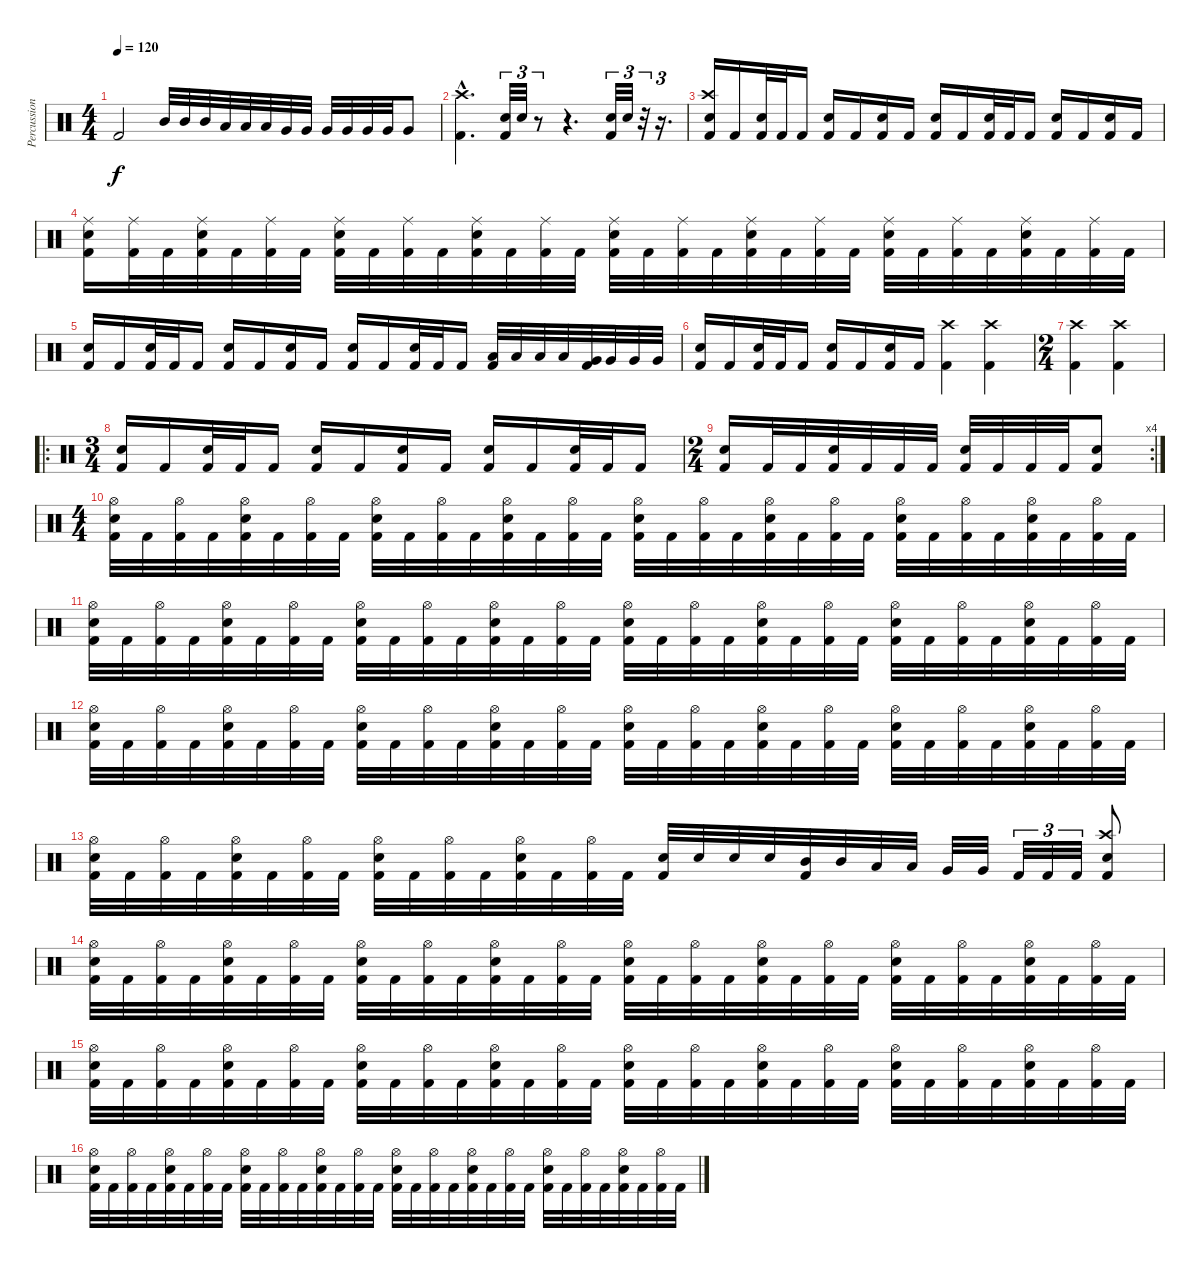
\track ("Percussion" "Percussion") {instrument percussion}
\staff {score}
\articulation defaults
\ts (4 4)
\tempo 120
\clef neutral
\ks c "Kick (hit) 2".2{dy f} "Mid Tom (hit)".32 "Mid Tom (hit)".32 "Mid Tom (hit)".32 "Low Tom (hit)".32 "Low Tom (hit)".32 "Low Tom (hit)".32 "Very Low Tom (hit)".32 "Very Low Tom (hit)".32 "Very Low Tom (hit)".32 "Very Low Tom (hit)".32 "Very Low Tom (hit)".32 "Very Low Tom (hit)".32 "Very Low Tom (hit)".8
|
("Crash high (hit)"{hac} "Kick (hit) 2"{hac}).4{d} ("Snare (hit) 2" "Kick (hit) 2").32{tu (3 2)} "Snare (hit) 2".32{tu (3 2)} r.8{tu (3 2)} r.4{d} ("Snare (hit) 2" "Kick (hit) 2").32{tu (3 2)} "Snare (hit) 2".32{tu (3 2)} r.32{tu (3 2)} r.16{d tu (3 2)} |
("Crash high (hit)" "Snare (hit) 2" "Kick (hit) 2").16 "Kick (hit) 2".16 ("Snare (hit) 2" "Kick (hit) 2").32 "Kick (hit) 2".32 "Kick (hit) 2".16 ("Snare (hit) 2" "Kick (hit) 2").16 "Kick (hit) 2".16 ("Snare (hit) 2" "Kick (hit) 2").16 "Kick (hit) 2".16 ("Snare (hit) 2" "Kick (hit) 2").16 "Kick (hit) 2".16 ("Snare (hit) 2" "Kick (hit) 2").32 "Kick (hit) 2".32 "Kick (hit) 2".16 ("Snare (hit) 2" "Kick (hit) 2").16 "Kick (hit) 2".16 ("Snare (hit) 2" "Kick (hit) 2").16 "Kick (hit) 2".16 |
("Ride (middle)" "Snare (hit) 2" "Kick (hit) 2").16 ("Ride (middle)" "Kick (hit) 2").32 "Kick (hit) 2".32 ("Ride (middle)" "Snare (hit) 2" "Kick (hit) 2").32 "Kick (hit) 2".32 ("Ride (middle)" "Kick (hit) 2").32 "Kick (hit) 2".32 ("Ride (middle)" "Snare (hit) 2" "Kick (hit) 2").32 "Kick (hit) 2".32 ("Ride (middle)" "Kick (hit) 2").32 "Kick (hit) 2".32 ("Ride (middle)" "Snare (hit) 2" "Kick (hit) 2").32 "Kick (hit) 2".32 ("Ride (middle)" "Kick (hit) 2").32 "Kick (hit) 2".32 ("Ride (middle)" "Snare (hit) 2" "Kick (hit) 2").32 "Kick (hit) 2".32 ("Ride (middle)" "Kick (hit) 2").32 "Kick (hit) 2".32 ("Ride (middle)" "Snare (hit) 2" "Kick (hit) 2").32 "Kick (hit) 2".32 ("Ride (middle)" "Kick (hit) 2").32 "Kick (hit) 2".32 ("Ride (middle)" "Snare (hit) 2" "Kick (hit) 2").32 "Kick (hit) 2".32 ("Ride (middle)" "Kick (hit) 2").32 "Kick (hit) 2".32 ("Ride (middle)" "Snare (hit) 2" "Kick (hit) 2").32 "Kick (hit) 2".32 ("Ride (middle)" "Kick (hit) 2").32 "Kick (hit) 2".32 |
("Snare (hit) 2" "Kick (hit) 2").16 "Kick (hit) 2".16 ("Snare (hit) 2" "Kick (hit) 2").32 "Kick (hit) 2".32 "Kick (hit) 2".16 ("Snare (hit) 2" "Kick (hit) 2").16 "Kick (hit) 2".16 ("Snare (hit) 2" "Kick (hit) 2").16 "Kick (hit) 2".16 ("Snare (hit) 2" "Kick (hit) 2").16 "Kick (hit) 2".16 ("Snare (hit) 2" "Kick (hit) 2").32 "Kick (hit) 2".32 "Kick (hit) 2".16 ("Low Tom (hit)" "Kick (hit) 2").32 "Low Tom (hit)".32 "Low Tom (hit)".32 "Low Tom (hit)".32 ("Very Low Tom (hit)" "Kick (hit) 2").32 "Very Low Tom (hit)".32 "Very Low Tom (hit)".32 "Very Low Tom (hit)".32 |
("Snare (hit) 2" "Kick (hit) 2").16 "Kick (hit) 2".16 ("Snare (hit) 2" "Kick (hit) 2").32 "Kick (hit) 2".32 "Kick (hit) 2".16 ("Snare (hit) 2" "Kick (hit) 2").16 "Kick (hit) 2".16 ("Snare (hit) 2" "Kick (hit) 2").16 "Kick (hit) 2".16 ("Crash high (hit)" "Kick (hit) 2").4 ("Crash high (hit)" "Kick (hit) 2").4 |
\ts (2 4)
("Crash high (hit)" "Kick (hit) 2").4 ("Crash high (hit)" "Kick (hit) 2").4 |
\ro
\ts (3 4)
("Snare (hit) 2" "Kick (hit) 2").16 "Kick (hit) 2".16 ("Snare (hit) 2" "Kick (hit) 2").32 "Kick (hit) 2".32 "Kick (hit) 2".16 ("Snare (hit) 2" "Kick (hit) 2").16 "Kick (hit) 2".16 ("Snare (hit) 2" "Kick (hit) 2").16 "Kick (hit) 2".16 ("Snare (hit) 2" "Kick (hit) 2").16 "Kick (hit) 2".16 ("Snare (hit) 2" "Kick (hit) 2").32 "Kick (hit) 2".32 "Kick (hit) 2".16 |
\rc 4
\ts (2 4)
("Snare (hit) 2" "Kick (hit) 2").16 "Kick (hit) 2".32 "Kick (hit) 2".32 ("Snare (hit) 2" "Kick (hit) 2").32 "Kick (hit) 2".32 "Kick (hit) 2".32 "Kick (hit) 2".32 ("Snare (hit) 2" "Kick (hit) 2").32 "Kick (hit) 2".32 "Kick (hit) 2".32 "Kick (hit) 2".32 ("Snare (hit) 2" "Kick (hit) 2").8 |
\ts (4 4)
("Hi-Hat (open)" "Snare (hit) 2" "Kick (hit) 2").32 "Kick (hit) 2".32 ("Hi-Hat (open)" "Kick (hit) 2").32 "Kick (hit) 2".32 ("Hi-Hat (open)" "Snare (hit) 2" "Kick (hit) 2").32 "Kick (hit) 2".32 ("Hi-Hat (open)" "Kick (hit) 2").32 "Kick (hit) 2".32 ("Hi-Hat (open)" "Snare (hit) 2" "Kick (hit) 2").32 "Kick (hit) 2".32 ("Hi-Hat (open)" "Kick (hit) 2").32 "Kick (hit) 2".32 ("Hi-Hat (open)" "Snare (hit) 2" "Kick (hit) 2").32 "Kick (hit) 2".32 ("Hi-Hat (open)" "Kick (hit) 2").32 "Kick (hit) 2".32 ("Hi-Hat (open)" "Snare (hit) 2" "Kick (hit) 2").32 "Kick (hit) 2".32 ("Hi-Hat (open)" "Kick (hit) 2").32 "Kick (hit) 2".32 ("Hi-Hat (open)" "Snare (hit) 2" "Kick (hit) 2").32 "Kick (hit) 2".32 ("Hi-Hat (open)" "Kick (hit) 2").32 "Kick (hit) 2".32 ("Hi-Hat (open)" "Snare (hit) 2" "Kick (hit) 2").32 "Kick (hit) 2".32 ("Hi-Hat (open)" "Kick (hit) 2").32 "Kick (hit) 2".32 ("Hi-Hat (open)" "Snare (hit) 2" "Kick (hit) 2").32 "Kick (hit) 2".32 ("Hi-Hat (open)" "Kick (hit) 2").32 "Kick (hit) 2".32 |
("Hi-Hat (open)" "Snare (hit) 2" "Kick (hit) 2").32 "Kick (hit) 2".32 ("Hi-Hat (open)" "Kick (hit) 2").32 "Kick (hit) 2".32 ("Hi-Hat (open)" "Snare (hit) 2" "Kick (hit) 2").32 "Kick (hit) 2".32 ("Hi-Hat (open)" "Kick (hit) 2").32 "Kick (hit) 2".32 ("Hi-Hat (open)" "Snare (hit) 2" "Kick (hit) 2").32 "Kick (hit) 2".32 ("Hi-Hat (open)" "Kick (hit) 2").32 "Kick (hit) 2".32 ("Hi-Hat (open)" "Snare (hit) 2" "Kick (hit) 2").32 "Kick (hit) 2".32 ("Hi-Hat (open)" "Kick (hit) 2").32 "Kick (hit) 2".32 ("Hi-Hat (open)" "Snare (hit) 2" "Kick (hit) 2").32 "Kick (hit) 2".32 ("Hi-Hat (open)" "Kick (hit) 2").32 "Kick (hit) 2".32 ("Hi-Hat (open)" "Snare (hit) 2" "Kick (hit) 2").32 "Kick (hit) 2".32 ("Hi-Hat (open)" "Kick (hit) 2").32 "Kick (hit) 2".32 ("Hi-Hat (open)" "Snare (hit) 2" "Kick (hit) 2").32 "Kick (hit) 2".32 ("Hi-Hat (open)" "Kick (hit) 2").32 "Kick (hit) 2".32 ("Hi-Hat (open)" "Snare (hit) 2" "Kick (hit) 2").32 "Kick (hit) 2".32 ("Hi-Hat (open)" "Kick (hit) 2").32 "Kick (hit) 2".32 |
("Hi-Hat (open)" "Snare (hit) 2" "Kick (hit) 2").32 "Kick (hit) 2".32 ("Hi-Hat (open)" "Kick (hit) 2").32 "Kick (hit) 2".32 ("Hi-Hat (open)" "Snare (hit) 2" "Kick (hit) 2").32 "Kick (hit) 2".32 ("Hi-Hat (open)" "Kick (hit) 2").32 "Kick (hit) 2".32 ("Hi-Hat (open)" "Snare (hit) 2" "Kick (hit) 2").32 "Kick (hit) 2".32 ("Hi-Hat (open)" "Kick (hit) 2").32 "Kick (hit) 2".32 ("Hi-Hat (open)" "Snare (hit) 2" "Kick (hit) 2").32 "Kick (hit) 2".32 ("Hi-Hat (open)" "Kick (hit) 2").32 "Kick (hit) 2".32 ("Hi-Hat (open)" "Snare (hit) 2" "Kick (hit) 2").32 "Kick (hit) 2".32 ("Hi-Hat (open)" "Kick (hit) 2").32 "Kick (hit) 2".32 ("Hi-Hat (open)" "Snare (hit) 2" "Kick (hit) 2").32 "Kick (hit) 2".32 ("Hi-Hat (open)" "Kick (hit) 2").32 "Kick (hit) 2".32 ("Hi-Hat (open)" "Snare (hit) 2" "Kick (hit) 2").32 "Kick (hit) 2".32 ("Hi-Hat (open)" "Kick (hit) 2").32 "Kick (hit) 2".32 ("Hi-Hat (open)" "Snare (hit) 2" "Kick (hit) 2").32 "Kick (hit) 2".32 ("Hi-Hat (open)" "Kick (hit) 2").32 "Kick (hit) 2".32 |
("Hi-Hat (open)" "Snare (hit) 2" "Kick (hit) 2").32 "Kick (hit) 2".32 ("Hi-Hat (open)" "Kick (hit) 2").32 "Kick (hit) 2".32 ("Hi-Hat (open)" "Snare (hit) 2" "Kick (hit) 2").32 "Kick (hit) 2".32 ("Hi-Hat (open)" "Kick (hit) 2").32 "Kick (hit) 2".32 ("Hi-Hat (open)" "Snare (hit) 2" "Kick (hit) 2").32 "Kick (hit) 2".32 ("Hi-Hat (open)" "Kick (hit) 2").32 "Kick (hit) 2".32 ("Hi-Hat (open)" "Snare (hit) 2" "Kick (hit) 2").32 "Kick (hit) 2".32 ("Hi-Hat (open)" "Kick (hit) 2").32 "Kick (hit) 2".32 ("Snare (hit) 2" "Kick (hit) 2").32 "Snare (hit) 2".32 "Snare (hit) 2".32 "Snare (hit) 2".32 ("Mid Tom (hit)" "Kick (hit) 2").32 "Mid Tom (hit)".32 "Low Tom (hit)".32 "Low Tom (hit)".32 "Very Low Tom (hit)".32 "Very Low Tom (hit)".32 "Kick (hit) 2".32{tu (3 2)} "Kick (hit) 2".32{tu (3 2)} "Kick (hit) 2".32{tu (3 2)} ("Crash high (hit)" "Snare (hit) 2" "Kick (hit) 2").8 |
("Hi-Hat (open)" "Snare (hit) 2" "Kick (hit) 2").32 "Kick (hit) 2".32 ("Hi-Hat (open)" "Kick (hit) 2").32 "Kick (hit) 2".32 ("Hi-Hat (open)" "Snare (hit) 2" "Kick (hit) 2").32 "Kick (hit) 2".32 ("Hi-Hat (open)" "Kick (hit) 2").32 "Kick (hit) 2".32 ("Hi-Hat (open)" "Snare (hit) 2" "Kick (hit) 2").32 "Kick (hit) 2".32 ("Hi-Hat (open)" "Kick (hit) 2").32 "Kick (hit) 2".32 ("Hi-Hat (open)" "Snare (hit) 2" "Kick (hit) 2").32 "Kick (hit) 2".32 ("Hi-Hat (open)" "Kick (hit) 2").32 "Kick (hit) 2".32 ("Hi-Hat (open)" "Snare (hit) 2" "Kick (hit) 2").32 "Kick (hit) 2".32 ("Hi-Hat (open)" "Kick (hit) 2").32 "Kick (hit) 2".32 ("Hi-Hat (open)" "Snare (hit) 2" "Kick (hit) 2").32 "Kick (hit) 2".32 ("Hi-Hat (open)" "Kick (hit) 2").32 "Kick (hit) 2".32 ("Hi-Hat (open)" "Snare (hit) 2" "Kick (hit) 2").32 "Kick (hit) 2".32 ("Hi-Hat (open)" "Kick (hit) 2").32 "Kick (hit) 2".32 ("Hi-Hat (open)" "Snare (hit) 2" "Kick (hit) 2").32 "Kick (hit) 2".32 ("Hi-Hat (open)" "Kick (hit) 2").32 "Kick (hit) 2".32 |
("Hi-Hat (open)" "Snare (hit) 2" "Kick (hit) 2").32 "Kick (hit) 2".32 ("Hi-Hat (open)" "Kick (hit) 2").32 "Kick (hit) 2".32 ("Hi-Hat (open)" "Snare (hit) 2" "Kick (hit) 2").32 "Kick (hit) 2".32 ("Hi-Hat (open)" "Kick (hit) 2").32 "Kick (hit) 2".32 ("Hi-Hat (open)" "Snare (hit) 2" "Kick (hit) 2").32 "Kick (hit) 2".32 ("Hi-Hat (open)" "Kick (hit) 2").32 "Kick (hit) 2".32 ("Hi-Hat (open)" "Snare (hit) 2" "Kick (hit) 2").32 "Kick (hit) 2".32 ("Hi-Hat (open)" "Kick (hit) 2").32 "Kick (hit) 2".32 ("Hi-Hat (open)" "Snare (hit) 2" "Kick (hit) 2").32 "Kick (hit) 2".32 ("Hi-Hat (open)" "Kick (hit) 2").32 "Kick (hit) 2".32 ("Hi-Hat (open)" "Snare (hit) 2" "Kick (hit) 2").32 "Kick (hit) 2".32 ("Hi-Hat (open)" "Kick (hit) 2").32 "Kick (hit) 2".32 ("Hi-Hat (open)" "Snare (hit) 2" "Kick (hit) 2").32 "Kick (hit) 2".32 ("Hi-Hat (open)" "Kick (hit) 2").32 "Kick (hit) 2".32 ("Hi-Hat (open)" "Snare (hit) 2" "Kick (hit) 2").32 "Kick (hit) 2".32 ("Hi-Hat (open)" "Kick (hit) 2").32 "Kick (hit) 2".32 |
("Hi-Hat (open)" "Snare (hit) 2" "Kick (hit) 2").32 "Kick (hit) 2".32 ("Hi-Hat (open)" "Kick (hit) 2").32 "Kick (hit) 2".32 ("Hi-Hat (open)" "Snare (hit) 2" "Kick (hit) 2").32 "Kick (hit) 2".32 ("Hi-Hat (open)" "Kick (hit) 2").32 "Kick (hit) 2".32 ("Hi-Hat (open)" "Snare (hit) 2" "Kick (hit) 2").32 "Kick (hit) 2".32 ("Hi-Hat (open)" "Kick (hit) 2").32 "Kick (hit) 2".32 ("Hi-Hat (open)" "Snare (hit) 2" "Kick (hit) 2").32 "Kick (hit) 2".32 ("Hi-Hat (open)" "Kick (hit) 2").32 "Kick (hit) 2".32 ("Hi-Hat (open)" "Snare (hit) 2" "Kick (hit) 2").32 "Kick (hit) 2".32 ("Hi-Hat (open)" "Kick (hit) 2").32 "Kick (hit) 2".32 ("Hi-Hat (open)" "Snare (hit) 2" "Kick (hit) 2").32 "Kick (hit) 2".32 ("Hi-Hat (open)" "Kick (hit) 2").32 "Kick (hit) 2".32 ("Hi-Hat (open)" "Snare (hit) 2" "Kick (hit) 2").32 "Kick (hit) 2".32 ("Hi-Hat (open)" "Kick (hit) 2").32 "Kick (hit) 2".32 ("Hi-Hat (open)" "Snare (hit) 2" "Kick (hit) 2").32 "Kick (hit) 2".32 ("Hi-Hat (open)" "Kick (hit) 2").32 "Kick (hit) 2".32
